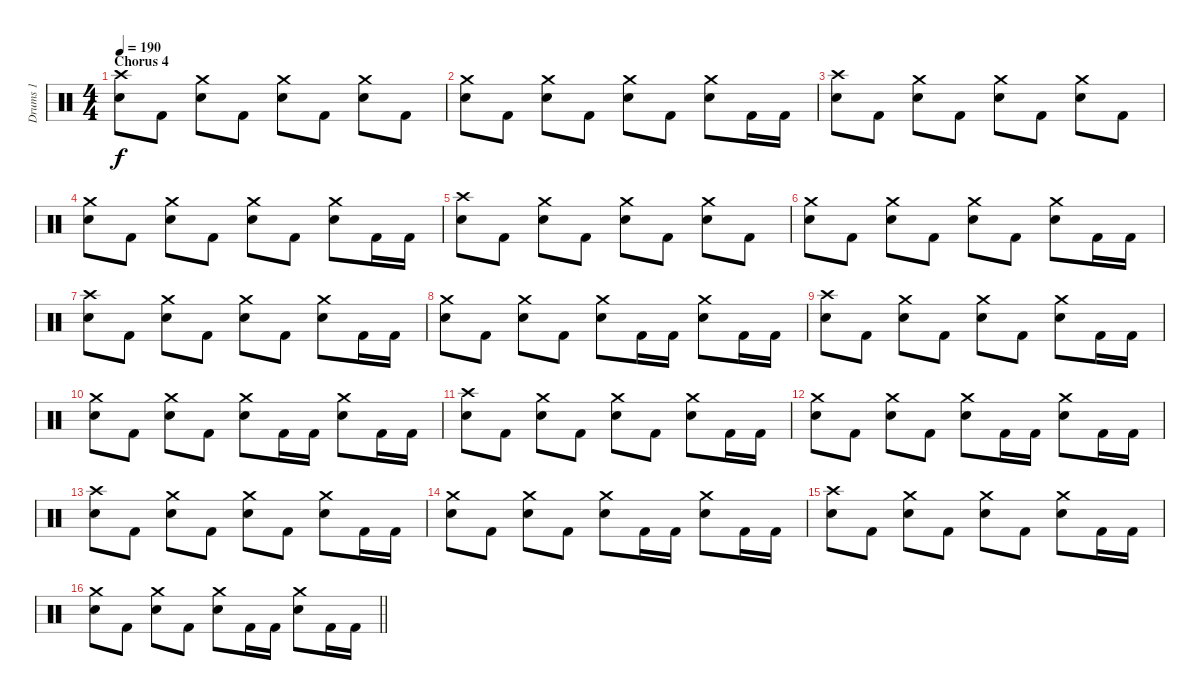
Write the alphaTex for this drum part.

\track ("Drums 1" "Drums 1") {instrument percussion}
\staff {score}
\articulation defaults
\ts (4 4)
\section ("" "Chorus 4")
\tempo 190
\clef neutral
\ks c
("Crash high (hit)" "Snare (hit) 2").8{dy f} "Kick (hit) 2".8 ("Crash medium (hit)" "Snare (hit) 2").8 "Kick (hit) 2".8 ("Crash medium (hit)" "Snare (hit) 2").8 "Kick (hit) 2".8 ("Crash medium (hit)" "Snare (hit) 2").8 "Kick (hit) 2".8 |
("Crash medium (hit)" "Snare (hit) 2").8 "Kick (hit) 2".8 ("Crash medium (hit)" "Snare (hit) 2").8 "Kick (hit) 2".8 ("Crash medium (hit)" "Snare (hit) 2").8 "Kick (hit) 2".8 ("Crash medium (hit)" "Snare (hit) 2").8 "Kick (hit) 2".16 "Kick (hit) 2".16 |
("Crash high (hit)" "Snare (hit) 2").8 "Kick (hit) 2".8 ("Crash medium (hit)" "Snare (hit) 2").8 "Kick (hit) 2".8 ("Crash medium (hit)" "Snare (hit) 2").8 "Kick (hit) 2".8 ("Crash medium (hit)" "Snare (hit) 2").8 "Kick (hit) 2".8 |
("Crash medium (hit)" "Snare (hit) 2").8 "Kick (hit) 2".8 ("Crash medium (hit)" "Snare (hit) 2").8 "Kick (hit) 2".8 ("Crash medium (hit)" "Snare (hit) 2").8 "Kick (hit) 2".8 ("Crash medium (hit)" "Snare (hit) 2").8 "Kick (hit) 2".16 "Kick (hit) 2".16 |
("Crash high (hit)" "Snare (hit) 2").8 "Kick (hit) 2".8 ("Crash medium (hit)" "Snare (hit) 2").8 "Kick (hit) 2".8 ("Crash medium (hit)" "Snare (hit) 2").8 "Kick (hit) 2".8 ("Crash medium (hit)" "Snare (hit) 2").8 "Kick (hit) 2".8 |
("Crash medium (hit)" "Snare (hit) 2").8 "Kick (hit) 2".8 ("Crash medium (hit)" "Snare (hit) 2").8 "Kick (hit) 2".8 ("Crash medium (hit)" "Snare (hit) 2").8 "Kick (hit) 2".8 ("Crash medium (hit)" "Snare (hit) 2").8 "Kick (hit) 2".16 "Kick (hit) 2".16 |
("Crash high (hit)" "Snare (hit) 2").8 "Kick (hit) 2".8 ("Crash medium (hit)" "Snare (hit) 2").8 "Kick (hit) 2".8 ("Crash medium (hit)" "Snare (hit) 2").8 "Kick (hit) 2".8 ("Crash medium (hit)" "Snare (hit) 2").8 "Kick (hit) 2".16 "Kick (hit) 2".16 |
("Crash medium (hit)" "Snare (hit) 2").8 "Kick (hit) 2".8 ("Crash medium (hit)" "Snare (hit) 2").8 "Kick (hit) 2".8 ("Crash medium (hit)" "Snare (hit) 2").8 "Kick (hit) 2".16 "Kick (hit) 2".16 ("Crash medium (hit)" "Snare (hit) 2").8 "Kick (hit) 2".16 "Kick (hit) 2".16 |
("Crash high (hit)" "Snare (hit) 2").8 "Kick (hit) 2".8 ("Crash medium (hit)" "Snare (hit) 2").8 "Kick (hit) 2".8 ("Crash medium (hit)" "Snare (hit) 2").8 "Kick (hit) 2".8 ("Crash medium (hit)" "Snare (hit) 2").8 "Kick (hit) 2".16 "Kick (hit) 2".16 |
("Crash medium (hit)" "Snare (hit) 2").8 "Kick (hit) 2".8 ("Crash medium (hit)" "Snare (hit) 2").8 "Kick (hit) 2".8 ("Crash medium (hit)" "Snare (hit) 2").8 "Kick (hit) 2".16 "Kick (hit) 2".16 ("Crash medium (hit)" "Snare (hit) 2").8 "Kick (hit) 2".16 "Kick (hit) 2".16 |
("Crash high (hit)" "Snare (hit) 2").8 "Kick (hit) 2".8 ("Crash medium (hit)" "Snare (hit) 2").8 "Kick (hit) 2".8 ("Crash medium (hit)" "Snare (hit) 2").8 "Kick (hit) 2".8 ("Crash medium (hit)" "Snare (hit) 2").8 "Kick (hit) 2".16 "Kick (hit) 2".16 |
("Crash medium (hit)" "Snare (hit) 2").8 "Kick (hit) 2".8 ("Crash medium (hit)" "Snare (hit) 2").8 "Kick (hit) 2".8 ("Crash medium (hit)" "Snare (hit) 2").8 "Kick (hit) 2".16 "Kick (hit) 2".16 ("Crash medium (hit)" "Snare (hit) 2").8 "Kick (hit) 2".16 "Kick (hit) 2".16 |
("Crash high (hit)" "Snare (hit) 2").8 "Kick (hit) 2".8 ("Crash medium (hit)" "Snare (hit) 2").8 "Kick (hit) 2".8 ("Crash medium (hit)" "Snare (hit) 2").8 "Kick (hit) 2".8 ("Crash medium (hit)" "Snare (hit) 2").8 "Kick (hit) 2".16 "Kick (hit) 2".16 |
("Crash medium (hit)" "Snare (hit) 2").8 "Kick (hit) 2".8 ("Crash medium (hit)" "Snare (hit) 2").8 "Kick (hit) 2".8 ("Crash medium (hit)" "Snare (hit) 2").8 "Kick (hit) 2".16 "Kick (hit) 2".16 ("Crash medium (hit)" "Snare (hit) 2").8 "Kick (hit) 2".16 "Kick (hit) 2".16 |
("Crash high (hit)" "Snare (hit) 2").8 "Kick (hit) 2".8 ("Crash medium (hit)" "Snare (hit) 2").8 "Kick (hit) 2".8 ("Crash medium (hit)" "Snare (hit) 2").8 "Kick (hit) 2".8 ("Crash medium (hit)" "Snare (hit) 2").8 "Kick (hit) 2".16 "Kick (hit) 2".16 |
\barLineRight lightlight
("Crash medium (hit)" "Snare (hit) 2").8 "Kick (hit) 2".8 ("Crash medium (hit)" "Snare (hit) 2").8 "Kick (hit) 2".8 ("Crash medium (hit)" "Snare (hit) 2").8 "Kick (hit) 2".16 "Kick (hit) 2".16 ("Crash medium (hit)" "Snare (hit) 2").8 "Kick (hit) 2".16 "Kick (hit) 2".16
